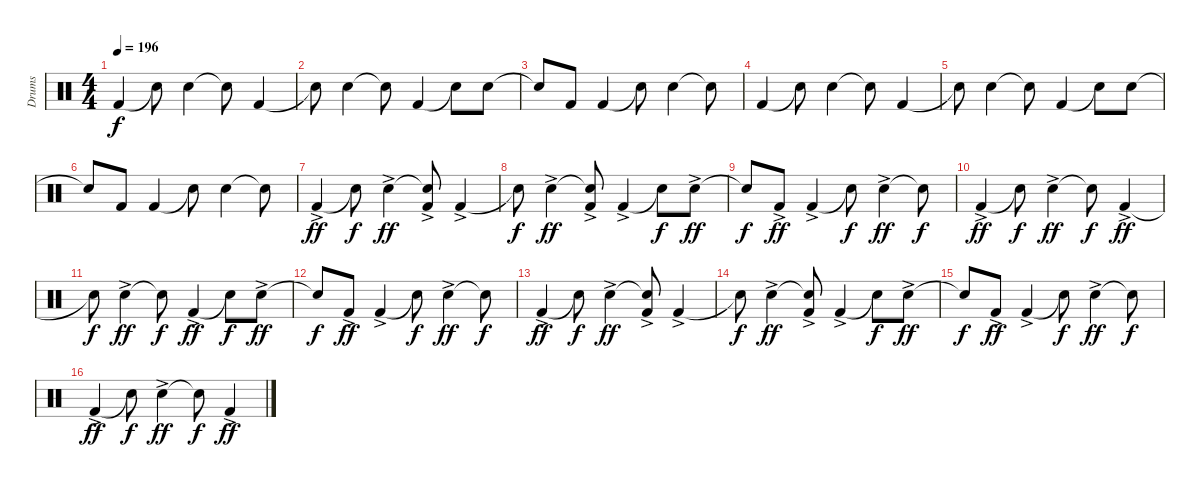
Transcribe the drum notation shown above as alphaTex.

\track ("Drums" "Drums") {instrument percussion}
\staff {score}
\articulation defaults
\ts (4 4)
\tempo 196
\clef neutral
\ks c "Kick (hit) 2".4{dy f} "Snare (hit)"{t}.8 "Electric Snare (hit)".4 "Snare (hit)"{t}.8 "Kick (hit) 2".4
|
"Snare (hit)"{t}.8 "Electric Snare (hit)".4 "Snare (hit)"{t}.8 "Kick (hit) 2".4 "Snare (hit)"{t}.8 "Electric Snare (hit)".8 |
"Snare (hit)"{t}.8 "Kick (hit) 2".8 "Kick (hit) 2".4 "Snare (hit)"{t}.8 "Electric Snare (hit)".4 "Snare (hit)"{t}.8 |
"Kick (hit) 2".4 "Snare (hit)"{t}.8 "Electric Snare (hit)".4 "Snare (hit)"{t}.8 "Kick (hit) 2".4 |
"Snare (hit)"{t}.8 "Electric Snare (hit)".4 "Snare (hit)"{t}.8 "Kick (hit) 2".4 "Snare (hit)"{t}.8 "Electric Snare (hit)".8 |
"Snare (hit)"{t}.8 "Kick (hit) 2".8 "Kick (hit) 2".4 "Snare (hit)"{t}.8 "Electric Snare (hit)".4 "Snare (hit)"{t}.8 |
"Kick (hit) 2"{ac}.4{dy ff} "Snare (hit)"{t}.8{dy f} "Electric Snare (hit)"{ac}.4{dy ff} ("Snare (hit)"{t} "Kick (hit) 2"{ac}).8 "Kick (hit) 2"{ac}.4 |
"Snare (hit)"{t}.8{dy f} "Electric Snare (hit)"{ac}.4{dy ff} ("Snare (hit)"{t} "Kick (hit) 2"{ac}).8 "Kick (hit) 2"{ac}.4 "Snare (hit)"{t}.8{dy f} "Electric Snare (hit)"{ac}.8{dy ff} |
"Snare (hit)"{t}.8{dy f} "Kick (hit) 2"{ac}.8{dy ff} "Kick (hit) 2"{ac}.4 "Snare (hit)"{t}.8{dy f} "Electric Snare (hit)"{ac}.4{dy ff} "Snare (hit)"{t}.8{dy f} |
"Kick (hit) 2"{ac}.4{dy ff} "Snare (hit)"{t}.8{dy f} "Electric Snare (hit)"{ac}.4{dy ff} "Snare (hit)"{t}.8{dy f} "Kick (hit) 2"{ac}.4{dy ff} |
"Snare (hit)"{t}.8{dy f} "Electric Snare (hit)"{ac}.4{dy ff} "Snare (hit)"{t}.8{dy f} "Kick (hit) 2"{ac}.4{dy ff} "Snare (hit)"{t}.8{dy f} "Electric Snare (hit)"{ac}.8{dy ff} |
"Snare (hit)"{t}.8{dy f} "Kick (hit) 2"{ac}.8{dy ff} "Kick (hit) 2"{ac}.4 "Snare (hit)"{t}.8{dy f} "Electric Snare (hit)"{ac}.4{dy ff} "Snare (hit)"{t}.8{dy f} |
"Kick (hit) 2"{ac}.4{dy ff} "Snare (hit)"{t}.8{dy f} "Electric Snare (hit)"{ac}.4{dy ff} ("Snare (hit)"{t} "Kick (hit) 2"{ac}).8 "Kick (hit) 2"{ac}.4 |
"Snare (hit)"{t}.8{dy f} "Electric Snare (hit)"{ac}.4{dy ff} ("Snare (hit)"{t} "Kick (hit) 2"{ac}).8 "Kick (hit) 2"{ac}.4 "Snare (hit)"{t}.8{dy f} "Electric Snare (hit)"{ac}.8{dy ff} |
"Snare (hit)"{t}.8{dy f} "Kick (hit) 2"{ac}.8{dy ff} "Kick (hit) 2"{ac}.4 "Snare (hit)"{t}.8{dy f} "Electric Snare (hit)"{ac}.4{dy ff} "Snare (hit)"{t}.8{dy f} |
"Kick (hit) 2"{ac}.4{dy ff} "Snare (hit)"{t}.8{dy f} "Electric Snare (hit)"{ac}.4{dy ff} "Snare (hit)"{t}.8{dy f} "Kick (hit) 2"{ac}.4{dy ff}
